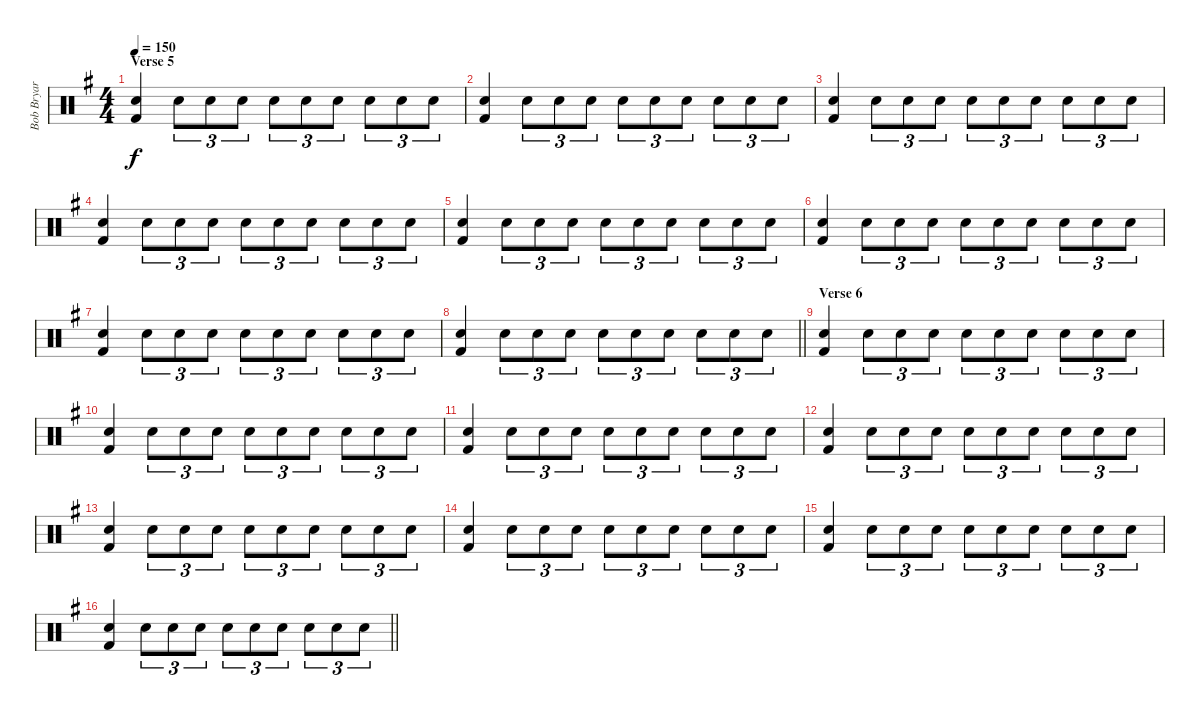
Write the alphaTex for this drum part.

\track ("Bob Bryar (percussion)" "Bob Bryar ") {instrument percussion}
\staff {score}
\articulation defaults
\ts (4 4)
\section ("" "Verse 5")
\tempo 150
\clef neutral
\ks eminor
("Electric Snare (hit)" "Kick (hit) 2").4{dy f} "Electric Snare (hit)".8{tu (3 2)} "Electric Snare (hit)".8{tu (3 2)} "Electric Snare (hit)".8{tu (3 2)} "Electric Snare (hit)".8{tu (3 2)} "Electric Snare (hit)".8{tu (3 2)} "Electric Snare (hit)".8{tu (3 2)} "Electric Snare (hit)".8{tu (3 2)} "Electric Snare (hit)".8{tu (3 2)} "Electric Snare (hit)".8{tu (3 2)} |
("Electric Snare (hit)" "Kick (hit) 2").4 "Electric Snare (hit)".8{tu (3 2)} "Electric Snare (hit)".8{tu (3 2)} "Electric Snare (hit)".8{tu (3 2)} "Electric Snare (hit)".8{tu (3 2)} "Electric Snare (hit)".8{tu (3 2)} "Electric Snare (hit)".8{tu (3 2)} "Electric Snare (hit)".8{tu (3 2)} "Electric Snare (hit)".8{tu (3 2)} "Electric Snare (hit)".8{tu (3 2)} |
("Electric Snare (hit)" "Kick (hit) 2").4 "Electric Snare (hit)".8{tu (3 2)} "Electric Snare (hit)".8{tu (3 2)} "Electric Snare (hit)".8{tu (3 2)} "Electric Snare (hit)".8{tu (3 2)} "Electric Snare (hit)".8{tu (3 2)} "Electric Snare (hit)".8{tu (3 2)} "Electric Snare (hit)".8{tu (3 2)} "Electric Snare (hit)".8{tu (3 2)} "Electric Snare (hit)".8{tu (3 2)} |
("Electric Snare (hit)" "Kick (hit) 2").4 "Electric Snare (hit)".8{tu (3 2)} "Electric Snare (hit)".8{tu (3 2)} "Electric Snare (hit)".8{tu (3 2)} "Electric Snare (hit)".8{tu (3 2)} "Electric Snare (hit)".8{tu (3 2)} "Electric Snare (hit)".8{tu (3 2)} "Electric Snare (hit)".8{tu (3 2)} "Electric Snare (hit)".8{tu (3 2)} "Electric Snare (hit)".8{tu (3 2)} |
("Electric Snare (hit)" "Kick (hit) 2").4 "Electric Snare (hit)".8{tu (3 2)} "Electric Snare (hit)".8{tu (3 2)} "Electric Snare (hit)".8{tu (3 2)} "Electric Snare (hit)".8{tu (3 2)} "Electric Snare (hit)".8{tu (3 2)} "Electric Snare (hit)".8{tu (3 2)} "Electric Snare (hit)".8{tu (3 2)} "Electric Snare (hit)".8{tu (3 2)} "Electric Snare (hit)".8{tu (3 2)} |
("Electric Snare (hit)" "Kick (hit) 2").4 "Electric Snare (hit)".8{tu (3 2)} "Electric Snare (hit)".8{tu (3 2)} "Electric Snare (hit)".8{tu (3 2)} "Electric Snare (hit)".8{tu (3 2)} "Electric Snare (hit)".8{tu (3 2)} "Electric Snare (hit)".8{tu (3 2)} "Electric Snare (hit)".8{tu (3 2)} "Electric Snare (hit)".8{tu (3 2)} "Electric Snare (hit)".8{tu (3 2)} |
("Electric Snare (hit)" "Kick (hit) 2").4 "Electric Snare (hit)".8{tu (3 2)} "Electric Snare (hit)".8{tu (3 2)} "Electric Snare (hit)".8{tu (3 2)} "Electric Snare (hit)".8{tu (3 2)} "Electric Snare (hit)".8{tu (3 2)} "Electric Snare (hit)".8{tu (3 2)} "Electric Snare (hit)".8{tu (3 2)} "Electric Snare (hit)".8{tu (3 2)} "Electric Snare (hit)".8{tu (3 2)} |
\barLineRight lightlight
("Electric Snare (hit)" "Kick (hit) 2").4 "Electric Snare (hit)".8{tu (3 2)} "Electric Snare (hit)".8{tu (3 2)} "Electric Snare (hit)".8{tu (3 2)} "Electric Snare (hit)".8{tu (3 2)} "Electric Snare (hit)".8{tu (3 2)} "Electric Snare (hit)".8{tu (3 2)} "Electric Snare (hit)".8{tu (3 2)} "Electric Snare (hit)".8{tu (3 2)} "Electric Snare (hit)".8{tu (3 2)} |
\section ("" "Verse 6")
("Electric Snare (hit)" "Kick (hit) 2").4 "Electric Snare (hit)".8{tu (3 2)} "Electric Snare (hit)".8{tu (3 2)} "Electric Snare (hit)".8{tu (3 2)} "Electric Snare (hit)".8{tu (3 2)} "Electric Snare (hit)".8{tu (3 2)} "Electric Snare (hit)".8{tu (3 2)} "Electric Snare (hit)".8{tu (3 2)} "Electric Snare (hit)".8{tu (3 2)} "Electric Snare (hit)".8{tu (3 2)} |
("Electric Snare (hit)" "Kick (hit) 2").4 "Electric Snare (hit)".8{tu (3 2)} "Electric Snare (hit)".8{tu (3 2)} "Electric Snare (hit)".8{tu (3 2)} "Electric Snare (hit)".8{tu (3 2)} "Electric Snare (hit)".8{tu (3 2)} "Electric Snare (hit)".8{tu (3 2)} "Electric Snare (hit)".8{tu (3 2)} "Electric Snare (hit)".8{tu (3 2)} "Electric Snare (hit)".8{tu (3 2)} |
("Electric Snare (hit)" "Kick (hit) 2").4 "Electric Snare (hit)".8{tu (3 2)} "Electric Snare (hit)".8{tu (3 2)} "Electric Snare (hit)".8{tu (3 2)} "Electric Snare (hit)".8{tu (3 2)} "Electric Snare (hit)".8{tu (3 2)} "Electric Snare (hit)".8{tu (3 2)} "Electric Snare (hit)".8{tu (3 2)} "Electric Snare (hit)".8{tu (3 2)} "Electric Snare (hit)".8{tu (3 2)} |
("Electric Snare (hit)" "Kick (hit) 2").4 "Electric Snare (hit)".8{tu (3 2)} "Electric Snare (hit)".8{tu (3 2)} "Electric Snare (hit)".8{tu (3 2)} "Electric Snare (hit)".8{tu (3 2)} "Electric Snare (hit)".8{tu (3 2)} "Electric Snare (hit)".8{tu (3 2)} "Electric Snare (hit)".8{tu (3 2)} "Electric Snare (hit)".8{tu (3 2)} "Electric Snare (hit)".8{tu (3 2)} |
("Electric Snare (hit)" "Kick (hit) 2").4 "Electric Snare (hit)".8{tu (3 2)} "Electric Snare (hit)".8{tu (3 2)} "Electric Snare (hit)".8{tu (3 2)} "Electric Snare (hit)".8{tu (3 2)} "Electric Snare (hit)".8{tu (3 2)} "Electric Snare (hit)".8{tu (3 2)} "Electric Snare (hit)".8{tu (3 2)} "Electric Snare (hit)".8{tu (3 2)} "Electric Snare (hit)".8{tu (3 2)} |
("Electric Snare (hit)" "Kick (hit) 2").4 "Electric Snare (hit)".8{tu (3 2)} "Electric Snare (hit)".8{tu (3 2)} "Electric Snare (hit)".8{tu (3 2)} "Electric Snare (hit)".8{tu (3 2)} "Electric Snare (hit)".8{tu (3 2)} "Electric Snare (hit)".8{tu (3 2)} "Electric Snare (hit)".8{tu (3 2)} "Electric Snare (hit)".8{tu (3 2)} "Electric Snare (hit)".8{tu (3 2)} |
("Electric Snare (hit)" "Kick (hit) 2").4 "Electric Snare (hit)".8{tu (3 2)} "Electric Snare (hit)".8{tu (3 2)} "Electric Snare (hit)".8{tu (3 2)} "Electric Snare (hit)".8{tu (3 2)} "Electric Snare (hit)".8{tu (3 2)} "Electric Snare (hit)".8{tu (3 2)} "Electric Snare (hit)".8{tu (3 2)} "Electric Snare (hit)".8{tu (3 2)} "Electric Snare (hit)".8{tu (3 2)} |
\barLineRight lightlight
("Electric Snare (hit)" "Kick (hit) 2").4 "Electric Snare (hit)".8{tu (3 2)} "Electric Snare (hit)".8{tu (3 2)} "Electric Snare (hit)".8{tu (3 2)} "Electric Snare (hit)".8{tu (3 2)} "Electric Snare (hit)".8{tu (3 2)} "Electric Snare (hit)".8{tu (3 2)} "Electric Snare (hit)".8{tu (3 2)} "Electric Snare (hit)".8{tu (3 2)} "Electric Snare (hit)".8{tu (3 2)}
